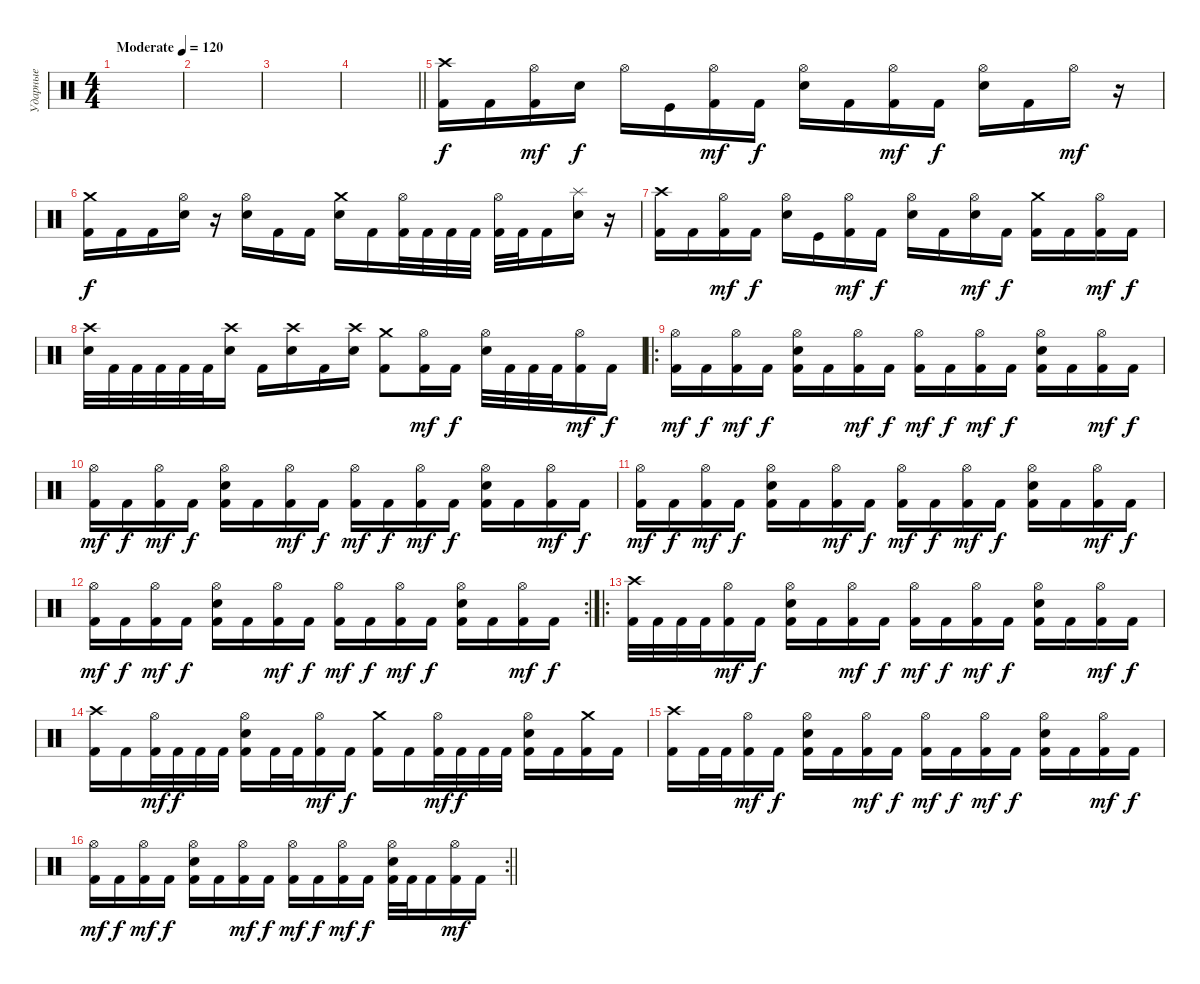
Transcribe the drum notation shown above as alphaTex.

\track ("Ударные" "Ударные") {instrument percussion}
\staff {score}
\articulation defaults
\ts (4 4)
\tempo (120 "Moderate")
\clef neutral
\ks c
|
|
|
\barLineRight lightlight
|
("Crash high (hit)" "Kick (hit) 2").16 "Kick (hit) 2".16 ("Hi-Hat (open)" "Kick (hit) 2").16{dy mf} "Electric Snare (hit)".16{dy f} "Hi-Hat (open)".16 "Kick (hit)".16 ("Hi-Hat (open)" "Kick (hit) 2").16{dy mf} "Kick (hit) 2".16{dy f} ("Hi-Hat (open)" "Electric Snare (hit)").16 "Kick (hit) 2".16 ("Hi-Hat (open)" "Kick (hit) 2").16{dy mf} "Kick (hit) 2".16{dy f} ("Hi-Hat (open)" "Electric Snare (hit)").16 "Kick (hit) 2".16 "Hi-Hat (open)".16{dy mf} r.16 |
("Crash medium (hit)" "Kick (hit) 2").16{dy f} "Kick (hit) 2".16 "Kick (hit) 2".16 ("Hi-Hat (open)" "Electric Snare (hit)").16 r.16 ("Hi-Hat (open)" "Electric Snare (hit)").16 "Kick (hit) 2".16 "Kick (hit) 2".16 ("Crash medium (hit)" "Electric Snare (hit)").16 "Kick (hit) 2".16 ("Hi-Hat (open)" "Kick (hit) 2").32 "Kick (hit) 2".32 "Kick (hit) 2".32 "Kick (hit) 2".32 ("Hi-Hat (open)" "Kick (hit) 2").32 "Kick (hit) 2".32 "Kick (hit) 2".16 ("Splash (hit)" "Electric Snare (hit)").16 r.16 |
("Crash high (hit)" "Kick (hit) 2").16 "Kick (hit) 2".16 ("Hi-Hat (open)" "Kick (hit) 2").16{dy mf} "Kick (hit) 2".16{dy f} ("Hi-Hat (open)" "Electric Snare (hit)").16 "Kick (hit)".16 ("Hi-Hat (open)" "Kick (hit) 2").16{dy mf} "Kick (hit) 2".16{dy f} ("Hi-Hat (open)" "Electric Snare (hit)").16 "Kick (hit) 2".16 ("Hi-Hat (open)" "Electric Snare (hit)").16{dy mf} "Kick (hit) 2".16{dy f} ("Crash medium (hit)" "Kick (hit) 2").16 "Kick (hit) 2".16 ("Hi-Hat (open)" "Kick (hit) 2").16{dy mf} "Kick (hit) 2".16{dy f} |
("Crash high (hit)" "Electric Snare (hit)").32 "Kick (hit) 2".32 "Kick (hit) 2".32 "Kick (hit) 2".32 "Kick (hit) 2".32 "Kick (hit) 2".32 ("Crash high (hit)" "Electric Snare (hit)").16 "Kick (hit) 2".16 ("Crash high (hit)" "Electric Snare (hit)").16 "Kick (hit) 2".16 ("Crash high (hit)" "Electric Snare (hit)").16 ("Crash medium (hit)" "Kick (hit) 2").8 ("Hi-Hat (open)" "Kick (hit) 2").16{dy mf} "Kick (hit) 2".16{dy f} ("Hi-Hat (open)" "Electric Snare (hit)").32 "Kick (hit) 2".32 "Kick (hit) 2".32 "Kick (hit) 2".32 ("Hi-Hat (open)" "Kick (hit) 2").16{dy mf} "Kick (hit) 2".16{dy f} |
\ro
("Hi-Hat (open)" "Kick (hit) 2").16{dy mf} "Kick (hit) 2".16{dy f} ("Hi-Hat (open)" "Kick (hit) 2").16{dy mf} "Kick (hit) 2".16{dy f} ("Hi-Hat (open)" "Electric Snare (hit)" "Kick (hit) 2").16 "Kick (hit) 2".16 ("Hi-Hat (open)" "Kick (hit) 2").16{dy mf} "Kick (hit) 2".16{dy f} ("Hi-Hat (open)" "Kick (hit) 2").16{dy mf} "Kick (hit) 2".16{dy f} ("Hi-Hat (open)" "Kick (hit) 2").16{dy mf} "Kick (hit) 2".16{dy f} ("Hi-Hat (open)" "Electric Snare (hit)" "Kick (hit) 2").16 "Kick (hit) 2".16 ("Hi-Hat (open)" "Kick (hit) 2").16{dy mf} "Kick (hit) 2".16{dy f} |
("Hi-Hat (open)" "Kick (hit) 2").16{dy mf} "Kick (hit) 2".16{dy f} ("Hi-Hat (open)" "Kick (hit) 2").16{dy mf} "Kick (hit) 2".16{dy f} ("Hi-Hat (open)" "Electric Snare (hit)" "Kick (hit) 2").16 "Kick (hit) 2".16 ("Hi-Hat (open)" "Kick (hit) 2").16{dy mf} "Kick (hit) 2".16{dy f} ("Hi-Hat (open)" "Kick (hit) 2").16{dy mf} "Kick (hit) 2".16{dy f} ("Hi-Hat (open)" "Kick (hit) 2").16{dy mf} "Kick (hit) 2".16{dy f} ("Hi-Hat (open)" "Electric Snare (hit)" "Kick (hit) 2").16 "Kick (hit) 2".16 ("Hi-Hat (open)" "Kick (hit) 2").16{dy mf} "Kick (hit) 2".16{dy f} |
("Hi-Hat (open)" "Kick (hit) 2").16{dy mf} "Kick (hit) 2".16{dy f} ("Hi-Hat (open)" "Kick (hit) 2").16{dy mf} "Kick (hit) 2".16{dy f} ("Hi-Hat (open)" "Electric Snare (hit)" "Kick (hit) 2").16 "Kick (hit) 2".16 ("Hi-Hat (open)" "Kick (hit) 2").16{dy mf} "Kick (hit) 2".16{dy f} ("Hi-Hat (open)" "Kick (hit) 2").16{dy mf} "Kick (hit) 2".16{dy f} ("Hi-Hat (open)" "Kick (hit) 2").16{dy mf} "Kick (hit) 2".16{dy f} ("Hi-Hat (open)" "Electric Snare (hit)" "Kick (hit) 2").16 "Kick (hit) 2".16 ("Hi-Hat (open)" "Kick (hit) 2").16{dy mf} "Kick (hit) 2".16{dy f} |
\rc 2
("Hi-Hat (open)" "Kick (hit) 2").16{dy mf} "Kick (hit) 2".16{dy f} ("Hi-Hat (open)" "Kick (hit) 2").16{dy mf} "Kick (hit) 2".16{dy f} ("Hi-Hat (open)" "Electric Snare (hit)" "Kick (hit) 2").16 "Kick (hit) 2".16 ("Hi-Hat (open)" "Kick (hit) 2").16{dy mf} "Kick (hit) 2".16{dy f} ("Hi-Hat (open)" "Kick (hit) 2").16{dy mf} "Kick (hit) 2".16{dy f} ("Hi-Hat (open)" "Kick (hit) 2").16{dy mf} "Kick (hit) 2".16{dy f} ("Hi-Hat (open)" "Electric Snare (hit)" "Kick (hit) 2").16 "Kick (hit) 2".16 ("Hi-Hat (open)" "Kick (hit) 2").16{dy mf} "Kick (hit) 2".16{dy f} |
\ro
("Crash high (hit)" "Kick (hit) 2").32 "Kick (hit) 2".32 "Kick (hit) 2".32 "Kick (hit) 2".32 ("Hi-Hat (open)" "Kick (hit) 2").16{dy mf} "Kick (hit) 2".16{dy f} ("Hi-Hat (open)" "Electric Snare (hit)" "Kick (hit) 2").16 "Kick (hit) 2".16 ("Hi-Hat (open)" "Kick (hit) 2").16{dy mf} "Kick (hit) 2".16{dy f} ("Hi-Hat (open)" "Kick (hit) 2").16{dy mf} "Kick (hit) 2".16{dy f} ("Hi-Hat (open)" "Kick (hit) 2").16{dy mf} "Kick (hit) 2".16{dy f} ("Hi-Hat (open)" "Electric Snare (hit)" "Kick (hit) 2").16 "Kick (hit) 2".16 ("Hi-Hat (open)" "Kick (hit) 2").16{dy mf} "Kick (hit) 2".16{dy f} |
("Crash high (hit)" "Kick (hit) 2").16 "Kick (hit) 2".16 ("Hi-Hat (open)" "Kick (hit) 2").32{dy mf} "Kick (hit) 2".32{dy f} "Kick (hit) 2".32 "Kick (hit) 2".32 ("Hi-Hat (open)" "Electric Snare (hit)" "Kick (hit) 2").16 "Kick (hit) 2".32 "Kick (hit) 2".32 ("Hi-Hat (open)" "Kick (hit) 2").16{dy mf} "Kick (hit) 2".16{dy f} ("Crash medium (hit)" "Kick (hit) 2").16 "Kick (hit) 2".16 ("Hi-Hat (open)" "Kick (hit) 2").32{dy mf} "Kick (hit) 2".32{dy f} "Kick (hit) 2".32 "Kick (hit) 2".32 ("Hi-Hat (open)" "Electric Snare (hit)" "Kick (hit) 2").16 "Kick (hit) 2".16 ("Crash medium (hit)" "Kick (hit) 2").16 "Kick (hit) 2".16 |
("Crash high (hit)" "Kick (hit) 2").16 "Kick (hit) 2".32 "Kick (hit) 2".32 ("Hi-Hat (open)" "Kick (hit) 2").16{dy mf} "Kick (hit) 2".16{dy f} ("Hi-Hat (open)" "Electric Snare (hit)" "Kick (hit) 2").16 "Kick (hit) 2".16 ("Hi-Hat (open)" "Kick (hit) 2").16{dy mf} "Kick (hit) 2".16{dy f} ("Hi-Hat (open)" "Kick (hit) 2").16{dy mf} "Kick (hit) 2".16{dy f} ("Hi-Hat (open)" "Kick (hit) 2").16{dy mf} "Kick (hit) 2".16{dy f} ("Hi-Hat (open)" "Electric Snare (hit)" "Kick (hit) 2").16 "Kick (hit) 2".16 ("Hi-Hat (open)" "Kick (hit) 2").16{dy mf} "Kick (hit) 2".16{dy f} |
\rc 2
\barLineRight lightlight
("Hi-Hat (open)" "Kick (hit) 2").16{dy mf} "Kick (hit) 2".16{dy f} ("Hi-Hat (open)" "Kick (hit) 2").16{dy mf} "Kick (hit) 2".16{dy f} ("Hi-Hat (open)" "Electric Snare (hit)" "Kick (hit) 2").16 "Kick (hit) 2".16 ("Hi-Hat (open)" "Kick (hit) 2").16{dy mf} "Kick (hit) 2".16{dy f} ("Hi-Hat (open)" "Kick (hit) 2").16{dy mf} "Kick (hit) 2".16{dy f} ("Hi-Hat (open)" "Kick (hit) 2").16{dy mf} "Kick (hit) 2".16{dy f} ("Hi-Hat (open)" "Electric Snare (hit)" "Kick (hit) 2").32 "Kick (hit) 2".32 "Kick (hit) 2".16 ("Hi-Hat (open)" "Kick (hit) 2").16{dy mf} "Kick (hit) 2".16
